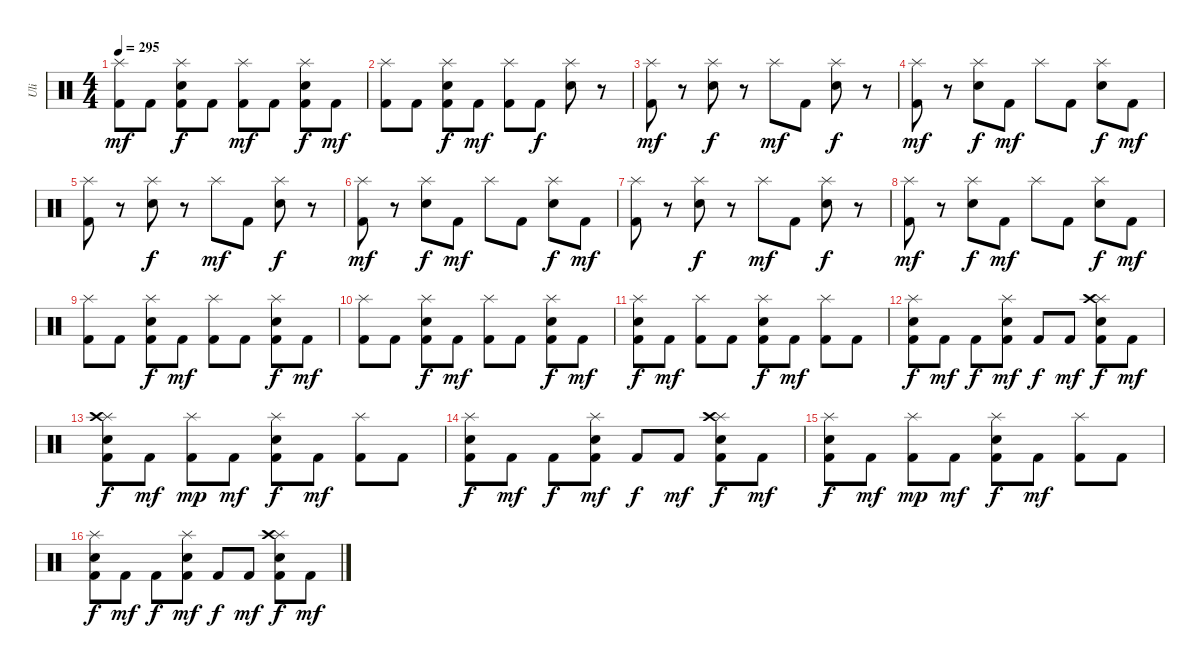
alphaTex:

\track ("Uli" "Uli") {instrument percussion}
\staff {score}
\articulation defaults
\ts (4 4)
\tempo 295
\clef neutral
\ks c
("Splash (hit)" "Kick (hit) 2").8{dy mf} "Kick (hit) 2".8 ("Splash (hit)" "Electric Snare (hit)" "Kick (hit) 2").8{dy f} "Kick (hit) 2".8 ("Splash (hit)" "Kick (hit) 2").8{dy mf} "Kick (hit) 2".8 ("Splash (hit)" "Electric Snare (hit)" "Kick (hit) 2").8{dy f} "Kick (hit) 2".8{dy mf} |
("Splash (hit)" "Kick (hit) 2").8 "Kick (hit) 2".8 ("Splash (hit)" "Electric Snare (hit)" "Kick (hit) 2").8{dy f} "Kick (hit) 2".8{dy mf} ("Splash (hit)" "Kick (hit) 2").8 "Kick (hit) 2".8{dy f} ("Splash (hit)" "Electric Snare (hit)").8 r.8 |
("Splash (hit)" "Kick (hit) 2").8{dy mf} r.8 ("Splash (hit)" "Electric Snare (hit)").8{dy f} r.8 "Splash (hit)".8{dy mf} "Kick (hit) 2".8 ("Splash (hit)" "Electric Snare (hit)").8{dy f} r.8 |
("Splash (hit)" "Kick (hit) 2").8{dy mf} r.8 ("Splash (hit)" "Electric Snare (hit)").8{dy f} "Kick (hit) 2".8{dy mf} "Splash (hit)".8 "Kick (hit) 2".8 ("Splash (hit)" "Electric Snare (hit)").8{dy f} "Kick (hit) 2".8{dy mf} |
("Splash (hit)" "Kick (hit) 2").8 r.8 ("Splash (hit)" "Electric Snare (hit)").8{dy f} r.8 "Splash (hit)".8{dy mf} "Kick (hit) 2".8 ("Splash (hit)" "Electric Snare (hit)").8{dy f} r.8 |
("Splash (hit)" "Kick (hit) 2").8{dy mf} r.8 ("Splash (hit)" "Electric Snare (hit)").8{dy f} "Kick (hit) 2".8{dy mf} "Splash (hit)".8 "Kick (hit) 2".8 ("Splash (hit)" "Electric Snare (hit)").8{dy f} "Kick (hit) 2".8{dy mf} |
("Splash (hit)" "Kick (hit) 2").8 r.8 ("Splash (hit)" "Electric Snare (hit)").8{dy f} r.8 "Splash (hit)".8{dy mf} "Kick (hit) 2".8 ("Splash (hit)" "Electric Snare (hit)").8{dy f} r.8 |
("Splash (hit)" "Kick (hit) 2").8{dy mf} r.8 ("Splash (hit)" "Electric Snare (hit)").8{dy f} "Kick (hit) 2".8{dy mf} "Splash (hit)".8 "Kick (hit) 2".8 ("Splash (hit)" "Electric Snare (hit)").8{dy f} "Kick (hit) 2".8{dy mf} |
("Splash (hit)" "Kick (hit) 2").8 "Kick (hit) 2".8 ("Splash (hit)" "Electric Snare (hit)" "Kick (hit) 2").8{dy f} "Kick (hit) 2".8{dy mf} ("Splash (hit)" "Kick (hit) 2").8 "Kick (hit) 2".8 ("Splash (hit)" "Electric Snare (hit)" "Kick (hit) 2").8{dy f} "Kick (hit) 2".8{dy mf} |
("Splash (hit)" "Kick (hit) 2").8 "Kick (hit) 2".8 ("Splash (hit)" "Electric Snare (hit)" "Kick (hit) 2").8{dy f} "Kick (hit) 2".8{dy mf} ("Splash (hit)" "Kick (hit) 2").8 "Kick (hit) 2".8 ("Splash (hit)" "Electric Snare (hit)" "Kick (hit) 2").8{dy f} "Kick (hit) 2".8{dy mf} |
("Splash (hit)" "Electric Snare (hit)" "Kick (hit) 2").8{dy f} "Kick (hit) 2".8{dy mf} ("Splash (hit)" "Kick (hit) 2").8 "Kick (hit) 2".8 ("Splash (hit)" "Electric Snare (hit)" "Kick (hit) 2").8{dy f} "Kick (hit) 2".8{dy mf} ("Splash (hit)" "Kick (hit) 2").8 "Kick (hit) 2".8 |
("Splash (hit)" "Electric Snare (hit)" "Kick (hit) 2").8{dy f} "Kick (hit) 2".8{dy mf} "Kick (hit) 2".8{dy f} ("Splash (hit)" "Electric Snare (hit)" "Kick (hit) 2").8{dy mf} "Kick (hit) 2".8{dy f} "Kick (hit) 2".8{dy mf} ("Splash (hit)" "Crash high (hit)" "Electric Snare (hit)" "Kick (hit) 2").8{dy f} "Kick (hit) 2".8{dy mf} |
("Splash (hit)" "Crash high (hit)" "Electric Snare (hit)" "Kick (hit) 2").8{dy f} "Kick (hit) 2".8{dy mf} ("Splash (hit)" "Kick (hit) 2").8{dy mp} "Kick (hit) 2".8{dy mf} ("Splash (hit)" "Electric Snare (hit)" "Kick (hit) 2").8{dy f} "Kick (hit) 2".8{dy mf} ("Splash (hit)" "Kick (hit) 2").8 "Kick (hit) 2".8 |
("Splash (hit)" "Electric Snare (hit)" "Kick (hit) 2").8{dy f} "Kick (hit) 2".8{dy mf} "Kick (hit) 2".8{dy f} ("Splash (hit)" "Electric Snare (hit)" "Kick (hit) 2").8{dy mf} "Kick (hit) 2".8{dy f} "Kick (hit) 2".8{dy mf} ("Splash (hit)" "Crash high (hit)" "Electric Snare (hit)" "Kick (hit) 2").8{dy f} "Kick (hit) 2".8{dy mf} |
("Splash (hit)" "Electric Snare (hit)" "Kick (hit) 2").8{dy f} "Kick (hit) 2".8{dy mf} ("Splash (hit)" "Kick (hit) 2").8{dy mp} "Kick (hit) 2".8{dy mf} ("Splash (hit)" "Electric Snare (hit)" "Kick (hit) 2").8{dy f} "Kick (hit) 2".8{dy mf} ("Splash (hit)" "Kick (hit) 2").8 "Kick (hit) 2".8 |
("Splash (hit)" "Electric Snare (hit)" "Kick (hit) 2").8{dy f} "Kick (hit) 2".8{dy mf} "Kick (hit) 2".8{dy f} ("Splash (hit)" "Electric Snare (hit)" "Kick (hit) 2").8{dy mf} "Kick (hit) 2".8{dy f} "Kick (hit) 2".8{dy mf} ("Splash (hit)" "Crash high (hit)" "Electric Snare (hit)" "Kick (hit) 2").8{dy f} "Kick (hit) 2".8{dy mf}
